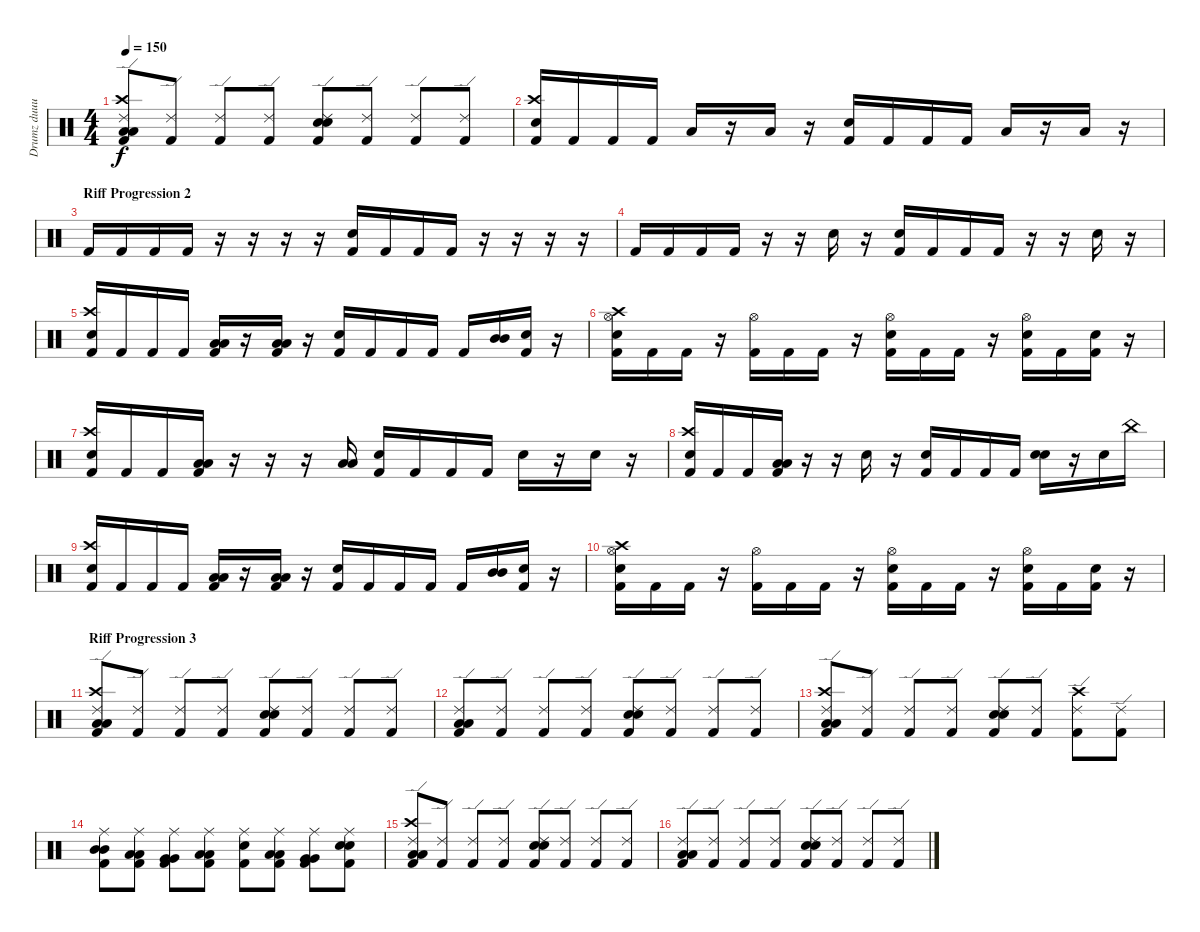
\track ("Drumz duuuuude" "Drumz duuu") {instrument percussion}
\staff {score}
\articulation defaults
\ts (4 4)
\tempo 150
\clef neutral
\ks c
("Kick (hit) 2" "Ride (edge) 2" "Crash high (hit)" "Low Floor Tom (hit)" "Low Floor Tom (hit)").8{dy f} ("Kick (hit) 2" "Ride (edge) 2").8 ("Kick (hit) 2" "Ride (edge) 2").8 ("Kick (hit) 2" "Ride (edge) 2").8 ("Kick (hit) 2" "Ride (edge) 2" "Snare (hit) 2" "Snare (hit) 2").8 ("Kick (hit) 2" "Ride (edge) 2").8 ("Kick (hit) 2" "Ride (edge) 2").8 ("Kick (hit) 2" "Ride (edge) 2").8 |
("Kick (hit) 2" "Crash high (hit)" "Snare (hit) 2").16 "Kick (hit) 2".16 "Kick (hit) 2".16 "Kick (hit) 2".16 "Low Floor Tom (hit)".16 r.16 "Low Floor Tom (hit)".16 r.16 ("Kick (hit) 2" "Snare (hit) 2").16 "Kick (hit) 2".16 "Kick (hit) 2".16 "Kick (hit) 2".16 "Low Floor Tom (hit)".16 r.16 "Low Floor Tom (hit)".16 r.16 |
\section ("" "Riff Progression 2")
"Kick (hit) 2".16 "Kick (hit) 2".16 "Kick (hit) 2".16 "Kick (hit) 2".16 r.16 r.16 r.16 r.16 ("Kick (hit) 2" "Electric Snare (hit)").16 "Kick (hit) 2".16 "Kick (hit) 2".16 "Kick (hit) 2".16 r.16 r.16 r.16 r.16 |
"Kick (hit) 2".16 "Kick (hit) 2".16 "Kick (hit) 2".16 "Kick (hit) 2".16 r.16 r.16 "Electric Snare (hit)".16 r.16 ("Kick (hit) 2" "Electric Snare (hit)").16 "Kick (hit) 2".16 "Kick (hit) 2".16 "Kick (hit) 2".16 r.16 r.16 "Electric Snare (hit)".16 r.16 |
("Crash high (hit)" "Kick (hit) 2" "Snare (hit) 2").16 "Kick (hit) 2".16 "Kick (hit) 2".16 "Kick (hit) 2".16 ("Kick (hit) 2" "Low Floor Tom (hit)" "Low Floor Tom (hit)").16 r.16 ("Kick (hit) 2" "Low Floor Tom (hit)" "Low Floor Tom (hit)").16 r.16 ("Kick (hit) 2" "Electric Snare (hit)").16 "Kick (hit) 2".16 "Kick (hit) 2".16 "Kick (hit) 2".16 "Kick (hit) 2".16 ("Mid Tom (hit)" "Mid Tom (hit)").16 ("Kick (hit) 2" "Electric Snare (hit)").16 r.16 |
("Hi-Hat (open)" "Kick (hit) 2" "Snare (hit) 2" "Crash high (hit)").16 "Kick (hit) 2".16 "Kick (hit) 2".16 r.16 ("Hi-Hat (open)" "Kick (hit) 2").16 "Kick (hit) 2".16 "Kick (hit) 2".16 r.16 ("Hi-Hat (open)" "Kick (hit) 2" "Snare (hit) 2").16 "Kick (hit) 2".16 "Kick (hit) 2".16 r.16 ("Hi-Hat (open)" "Kick (hit) 2" "Electric Snare (hit)").16 "Kick (hit) 2".16 ("Kick (hit) 2" "Electric Snare (hit)").16 r.16 |
("Crash high (hit)" "Kick (hit) 2" "Snare (hit) 2").16 "Kick (hit) 2".16 "Kick (hit) 2".16 ("Kick (hit) 2" "Low Floor Tom (hit)" "Low Floor Tom (hit)").16 r.16 r.16 r.16 ("Low Floor Tom (hit)" "Low Floor Tom (hit)").16 ("Kick (hit) 2" "Electric Snare (hit)").16 "Kick (hit) 2".16 "Kick (hit) 2".16 "Kick (hit) 2".16 "Snare (hit) 2".16 r.16 "Snare (hit) 2".16 r.16 |
("Crash high (hit)" "Kick (hit) 2" "Snare (hit) 2").16 "Kick (hit) 2".16 "Kick (hit) 2".16 ("Kick (hit) 2" "Low Floor Tom (hit)" "Low Floor Tom (hit)").16 r.16 r.16 "Electric Snare (hit)".16 r.16 ("Kick (hit) 2" "Electric Snare (hit)").16 "Kick (hit) 2".16 "Kick (hit) 2".16 "Kick (hit) 2".16 ("Electric Snare (hit)" "Snare (hit) 2").16 r.16 "Snare (hit) 2".16 "China (hit)".16 |
("Crash high (hit)" "Kick (hit) 2" "Snare (hit) 2").16 "Kick (hit) 2".16 "Kick (hit) 2".16 "Kick (hit) 2".16 ("Kick (hit) 2" "Low Floor Tom (hit)" "Low Floor Tom (hit)").16 r.16 ("Kick (hit) 2" "Low Floor Tom (hit)" "Low Floor Tom (hit)").16 r.16 ("Kick (hit) 2" "Electric Snare (hit)").16 "Kick (hit) 2".16 "Kick (hit) 2".16 "Kick (hit) 2".16 "Kick (hit) 2".16 ("Mid Tom (hit)" "Mid Tom (hit)").16 ("Kick (hit) 2" "Electric Snare (hit)").16 r.16 |
("Hi-Hat (open)" "Kick (hit) 2" "Snare (hit) 2" "Crash high (hit)").16 "Kick (hit) 2".16 "Kick (hit) 2".16 r.16 ("Hi-Hat (open)" "Kick (hit) 2").16 "Kick (hit) 2".16 "Kick (hit) 2".16 r.16 ("Hi-Hat (open)" "Kick (hit) 2" "Snare (hit) 2").16 "Kick (hit) 2".16 "Kick (hit) 2".16 r.16 ("Hi-Hat (open)" "Kick (hit) 2" "Electric Snare (hit)").16 "Kick (hit) 2".16 ("Kick (hit) 2" "Electric Snare (hit)").16 r.16 |
\section ("" "Riff Progression 3")
("Kick (hit) 2" "Ride (edge) 2" "Crash high (hit)" "Low Floor Tom (hit)" "Low Floor Tom (hit)").8 ("Kick (hit) 2" "Ride (edge) 2").8 ("Kick (hit) 2" "Ride (edge) 2").8 ("Kick (hit) 2" "Ride (edge) 2").8 ("Kick (hit) 2" "Ride (edge) 2" "Snare (hit) 2" "Snare (hit) 2").8 ("Kick (hit) 2" "Ride (edge) 2").8 ("Kick (hit) 2" "Ride (edge) 2").8 ("Kick (hit) 2" "Ride (edge) 2").8 |
("Kick (hit) 2" "Ride (edge) 2" "Low Floor Tom (hit)" "Low Floor Tom (hit)").8 ("Kick (hit) 2" "Ride (edge) 2").8 ("Kick (hit) 2" "Ride (edge) 2").8 ("Kick (hit) 2" "Ride (edge) 2").8 ("Kick (hit) 2" "Ride (edge) 2" "Snare (hit) 2" "Snare (hit) 2").8 ("Kick (hit) 2" "Ride (edge) 2").8 ("Kick (hit) 2" "Ride (edge) 2").8 ("Kick (hit) 2" "Ride (edge) 2").8 |
("Kick (hit) 2" "Ride (edge) 2" "Crash high (hit)" "Low Floor Tom (hit)" "Low Floor Tom (hit)").8 ("Kick (hit) 2" "Ride (edge) 2").8 ("Kick (hit) 2" "Ride (edge) 2").8 ("Kick (hit) 2" "Ride (edge) 2").8 ("Kick (hit) 2" "Ride (edge) 2" "Snare (hit) 2" "Snare (hit) 2").8 ("Kick (hit) 2" "Ride (edge) 2").8 ("Kick (hit) 2" "Ride (edge) 2" "Crash high (hit)").8 ("Kick (hit) 2" "Ride (edge) 2").8 |
("Kick (hit) 2" "Ride (middle)" "Mid Tom (hit)" "Mid Tom (hit)").8 ("Kick (hit) 2" "Ride (middle)" "Low Tom (hit)" "Low Tom (hit)").8 ("Kick (hit) 2" "Ride (middle)" "Very Low Tom (hit)" "Very Low Tom (hit)").8 ("Kick (hit) 2" "Ride (middle)" "Low Floor Tom (hit)" "Low Floor Tom (hit)").8 ("Kick (hit) 2" "Ride (middle)" "Snare (hit) 2").8 ("Kick (hit) 2" "Ride (middle)" "Low Floor Tom (hit)" "Low Floor Tom (hit)").8 ("Kick (hit) 2" "Ride (middle)" "Very Low Tom (hit)" "Very Low Tom (hit)").8 ("Kick (hit) 2" "Ride (middle)" "Snare (hit) 2" "Snare (hit) 2").8 |
("Kick (hit) 2" "Ride (edge) 2" "Crash high (hit)" "Low Floor Tom (hit)" "Low Floor Tom (hit)").8 ("Kick (hit) 2" "Ride (edge) 2").8 ("Kick (hit) 2" "Ride (edge) 2").8 ("Kick (hit) 2" "Ride (edge) 2").8 ("Kick (hit) 2" "Ride (edge) 2" "Snare (hit) 2" "Snare (hit) 2").8 ("Kick (hit) 2" "Ride (edge) 2").8 ("Kick (hit) 2" "Ride (edge) 2").8 ("Kick (hit) 2" "Ride (edge) 2").8 |
("Kick (hit) 2" "Ride (edge) 2" "Low Floor Tom (hit)" "Low Floor Tom (hit)").8 ("Kick (hit) 2" "Ride (edge) 2").8 ("Kick (hit) 2" "Ride (edge) 2").8 ("Kick (hit) 2" "Ride (edge) 2").8 ("Kick (hit) 2" "Ride (edge) 2" "Snare (hit) 2" "Snare (hit) 2").8 ("Kick (hit) 2" "Ride (edge) 2").8 ("Kick (hit) 2" "Ride (edge) 2").8 ("Kick (hit) 2" "Ride (edge) 2").8
